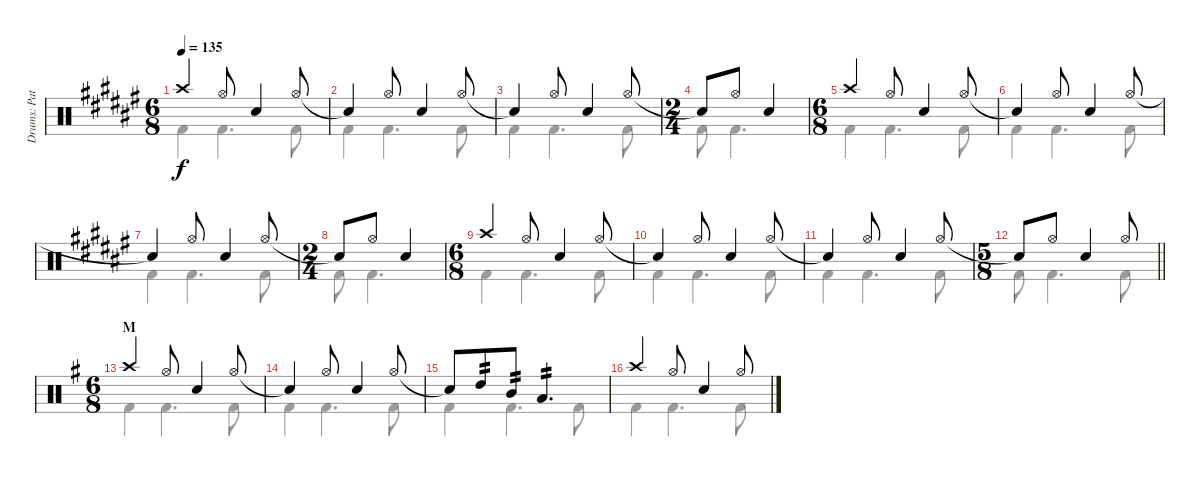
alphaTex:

\track ("Drums: Pat" "Drums: Pat") {instrument percussion}
\staff {score}
\articulation defaults
\voice
\ts (6 8)
\tempo 135
\clef neutral
\ks f# "Crash high (hit)".4{dy f} "Hi-Hat (open)".8 "Snare (hit) 2".4 "Hi-Hat (open)".8
|
"Snare (hit)"{t}.4 "Hi-Hat (open)".8 "Snare (hit) 2".4 "Hi-Hat (open)".8 |
"Snare (hit)"{t}.4 "Hi-Hat (open)".8 "Snare (hit) 2".4 "Hi-Hat (open)".8 |
\ts (2 4)
"Snare (hit)"{t}.8 "Hi-Hat (open)".8 "Snare (hit) 2".4 |
\ts (6 8)
"Crash high (hit)".4 "Hi-Hat (open)".8 "Snare (hit) 2".4 "Hi-Hat (open)".8 |
"Snare (hit)"{t}.4 "Hi-Hat (open)".8 "Snare (hit) 2".4 "Hi-Hat (open)".8 |
"Snare (hit)"{t}.4 "Hi-Hat (open)".8 "Snare (hit) 2".4 "Hi-Hat (open)".8 |
\ts (2 4)
"Snare (hit)"{t}.8 "Hi-Hat (open)".8 "Snare (hit) 2".4 |
\ts (6 8)
"Crash high (hit)".4 "Hi-Hat (open)".8 "Snare (hit) 2".4 "Hi-Hat (open)".8 |
"Snare (hit)"{t}.4 "Hi-Hat (open)".8 "Snare (hit) 2".4 "Hi-Hat (open)".8 |
"Snare (hit)"{t}.4 "Hi-Hat (open)".8 "Snare (hit) 2".4 "Hi-Hat (open)".8 |
\ts (5 8)
\barLineRight lightlight "Snare (hit)"{t}.8 "Hi-Hat (open)".8 "Snare (hit) 2".4 "Hi-Hat (open)".8
|
\ts (6 8)
\section ("" "M")
\ks g "Crash high (hit)".4 "Hi-Hat (open)".8 "Snare (hit) 2".4 "Hi-Hat (open)".8
|
"Snare (hit)"{t}.4 "Hi-Hat (open)".8 "Snare (hit) 2".4 "Hi-Hat (open)".8 |
"Snare (hit)"{t}.8 "High Tom (hit)".8{tp 2} "Mid Tom (hit)".8{tp 2} "Low Tom (hit)".4{d tp 2} |
"Crash high (hit)".4 "Hi-Hat (open)".8 "Snare (hit) 2".4 "Hi-Hat (open)".8
\voice
\clef neutral
\ottava regular
\simile none
\ks f# "Kick (hit) 2".4{dy f} "Kick (hit) 2".4{d} "Kick (hit) 2".8
|
"Kick (hit) 2".4 "Kick (hit) 2".4{d} "Kick (hit) 2".8 |
"Kick (hit) 2".4 "Kick (hit) 2".4{d} "Kick (hit) 2".8 |
"Kick (hit) 2".8 "Kick (hit) 2".4{d} |
"Kick (hit) 2".4 "Kick (hit) 2".4{d} "Kick (hit) 2".8 |
"Kick (hit) 2".4 "Kick (hit) 2".4{d} "Kick (hit) 2".8 |
"Kick (hit) 2".4 "Kick (hit) 2".4{d} "Kick (hit) 2".8 |
"Kick (hit) 2".8 "Kick (hit) 2".4{d} |
"Kick (hit) 2".4 "Kick (hit) 2".4{d} "Kick (hit) 2".8 |
"Kick (hit) 2".4 "Kick (hit) 2".4{d} "Kick (hit) 2".8 |
"Kick (hit) 2".4 "Kick (hit) 2".4{d} "Kick (hit) 2".8 |
\barLineRight lightlight "Kick (hit) 2".8 "Kick (hit) 2".4{d} "Kick (hit) 2".8
|
\ks g "Kick (hit) 2".4 "Kick (hit) 2".4{d} "Kick (hit) 2".8
|
"Kick (hit) 2".4 "Kick (hit) 2".4{d} "Kick (hit) 2".8 |
"Kick (hit) 2".4 "Kick (hit) 2".4{d} "Kick (hit) 2".8 |
"Kick (hit) 2".4 "Kick (hit) 2".4{d} "Kick (hit) 2".8
